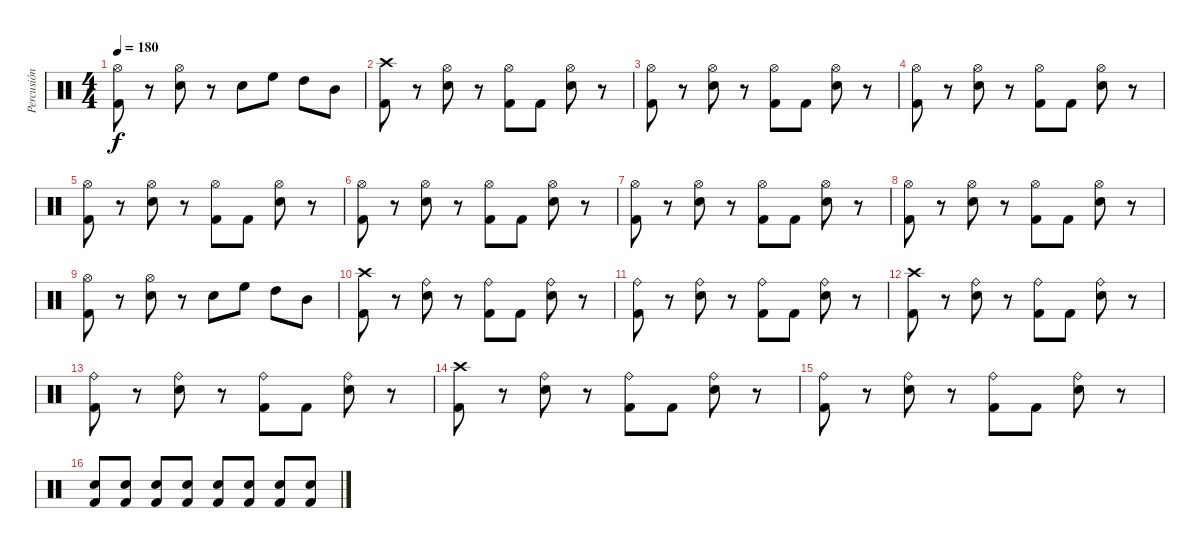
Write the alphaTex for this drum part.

\track ("Percusión" "Percusión") {instrument percussion}
\staff {score}
\articulation defaults
\ts (4 4)
\tempo 180
\clef neutral
\ks c
("Hi-Hat (open)" "Kick (hit) 2").8{dy f} r.8 ("Hi-Hat (open)" "Electric Snare (hit)").8 r.8 "Electric Snare (hit)".8 "High Floor Tom (hit)".8 "High Tom (hit)".8 "Mid Tom (hit)".8 |
("Crash high (hit)" "Kick (hit) 2").8 r.8 ("Hi-Hat (open)" "Electric Snare (hit)").8 r.8 ("Hi-Hat (open)" "Kick (hit) 2").8 "Kick (hit) 2".8 ("Hi-Hat (open)" "Electric Snare (hit)").8 r.8 |
("Hi-Hat (open)" "Kick (hit) 2").8 r.8 ("Hi-Hat (open)" "Electric Snare (hit)").8 r.8 ("Hi-Hat (open)" "Kick (hit) 2").8 "Kick (hit) 2".8 ("Hi-Hat (open)" "Electric Snare (hit)").8 r.8 |
("Hi-Hat (open)" "Kick (hit) 2").8 r.8 ("Hi-Hat (open)" "Electric Snare (hit)").8 r.8 ("Hi-Hat (open)" "Kick (hit) 2").8 "Kick (hit) 2".8 ("Hi-Hat (open)" "Electric Snare (hit)").8 r.8 |
("Hi-Hat (open)" "Kick (hit) 2").8 r.8 ("Hi-Hat (open)" "Electric Snare (hit)").8 r.8 ("Hi-Hat (open)" "Kick (hit) 2").8 "Kick (hit) 2".8 ("Hi-Hat (open)" "Electric Snare (hit)").8 r.8 |
("Hi-Hat (open)" "Kick (hit) 2").8 r.8 ("Hi-Hat (open)" "Electric Snare (hit)").8 r.8 ("Hi-Hat (open)" "Kick (hit) 2").8 "Kick (hit) 2".8 ("Hi-Hat (open)" "Electric Snare (hit)").8 r.8 |
("Hi-Hat (open)" "Kick (hit) 2").8 r.8 ("Hi-Hat (open)" "Electric Snare (hit)").8 r.8 ("Hi-Hat (open)" "Kick (hit) 2").8 "Kick (hit) 2".8 ("Hi-Hat (open)" "Electric Snare (hit)").8 r.8 |
("Hi-Hat (open)" "Kick (hit) 2").8 r.8 ("Hi-Hat (open)" "Electric Snare (hit)").8 r.8 ("Hi-Hat (open)" "Kick (hit) 2").8 "Kick (hit) 2".8 ("Hi-Hat (open)" "Electric Snare (hit)").8 r.8 |
("Hi-Hat (open)" "Kick (hit) 2").8 r.8 ("Hi-Hat (open)" "Electric Snare (hit)").8 r.8 "Electric Snare (hit)".8 "High Floor Tom (hit)".8 "High Tom (hit)".8 "Mid Tom (hit)".8 |
("Crash high (hit)" "Kick (hit) 2").8 r.8 ("Ride (bell)" "Electric Snare (hit)").8 r.8 ("Ride (bell)" "Kick (hit) 2").8 "Kick (hit) 2".8 ("Ride (bell)" "Electric Snare (hit)").8 r.8 |
("Ride (bell)" "Kick (hit) 2").8 r.8 ("Ride (bell)" "Electric Snare (hit)").8 r.8 ("Ride (bell)" "Kick (hit) 2").8 "Kick (hit) 2".8 ("Ride (bell)" "Electric Snare (hit)").8 r.8 |
("Crash high (hit)" "Kick (hit) 2").8 r.8 ("Ride (bell)" "Electric Snare (hit)").8 r.8 ("Ride (bell)" "Kick (hit) 2").8 "Kick (hit) 2".8 ("Ride (bell)" "Electric Snare (hit)").8 r.8 |
("Ride (bell)" "Kick (hit) 2").8 r.8 ("Ride (bell)" "Electric Snare (hit)").8 r.8 ("Ride (bell)" "Kick (hit) 2").8 "Kick (hit) 2".8 ("Ride (bell)" "Electric Snare (hit)").8 r.8 |
("Crash high (hit)" "Kick (hit) 2").8 r.8 ("Ride (bell)" "Electric Snare (hit)").8 r.8 ("Ride (bell)" "Kick (hit) 2").8 "Kick (hit) 2".8 ("Ride (bell)" "Electric Snare (hit)").8 r.8 |
("Ride (bell)" "Kick (hit) 2").8 r.8 ("Ride (bell)" "Electric Snare (hit)").8 r.8 ("Ride (bell)" "Kick (hit) 2").8 "Kick (hit) 2".8 ("Ride (bell)" "Electric Snare (hit)").8 r.8 |
("Kick (hit) 2" "Electric Snare (hit)").8{volume 10} ("Kick (hit) 2" "Electric Snare (hit)").8{volume 11} ("Kick (hit) 2" "Electric Snare (hit)").8{volume 12} ("Kick (hit) 2" "Electric Snare (hit)").8{volume 13} ("Kick (hit) 2" "Electric Snare (hit)").8{volume 13} ("Kick (hit) 2" "Electric Snare (hit)").8{volume 15} ("Kick (hit) 2" "Electric Snare (hit)").8{volume 16} ("Kick (hit) 2" "Electric Snare (hit)").8{volume 16}
